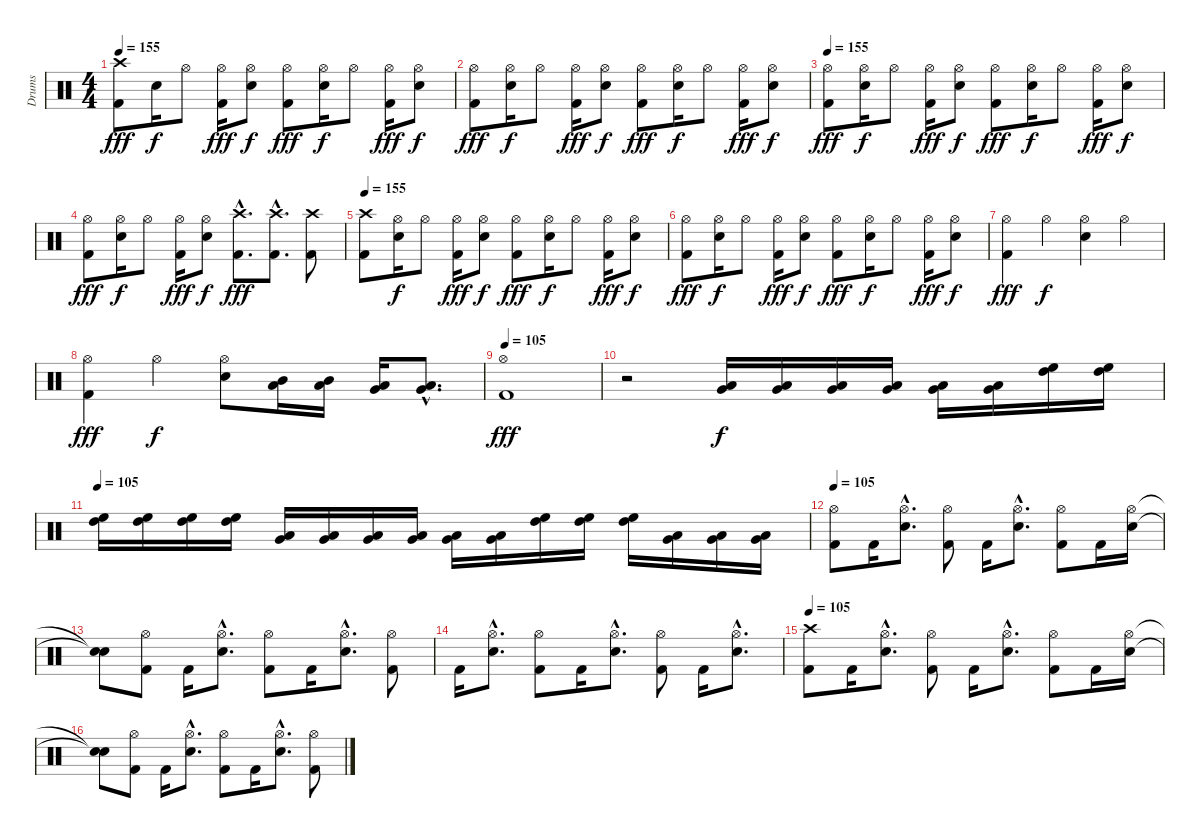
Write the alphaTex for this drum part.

\track ("Drums" "Drums") {instrument percussion}
\staff {score}
\articulation defaults
\ts (4 4)
\tempo 155
\clef neutral
\ks c
("Kick (hit) 2" "Crash high (hit)").8{dy fff} "Electric Snare (hit)".16{dy f} "Hi-Hat (open)".8 ("Kick (hit) 2" "Hi-Hat (open)").16{dy fff} ("Electric Snare (hit)" "Hi-Hat (open)").8{dy f} ("Kick (hit) 2" "Hi-Hat (open)").8{dy fff} ("Electric Snare (hit)" "Hi-Hat (open)").16{dy f} "Hi-Hat (open)".8 ("Kick (hit) 2" "Hi-Hat (open)").16{dy fff} ("Electric Snare (hit)" "Hi-Hat (open)").8{dy f} |
("Kick (hit) 2" "Hi-Hat (open)").8{dy fff} ("Electric Snare (hit)" "Hi-Hat (open)").16{dy f} "Hi-Hat (open)".8 ("Kick (hit) 2" "Hi-Hat (open)").16{dy fff} ("Electric Snare (hit)" "Hi-Hat (open)").8{dy f} ("Kick (hit) 2" "Hi-Hat (open)").8{dy fff} ("Electric Snare (hit)" "Hi-Hat (open)").16{dy f} "Hi-Hat (open)".8 ("Kick (hit) 2" "Hi-Hat (open)").16{dy fff} ("Electric Snare (hit)" "Hi-Hat (open)").8{dy f} |
\tempo 155
("Kick (hit) 2" "Hi-Hat (open)").8{dy fff} ("Electric Snare (hit)" "Hi-Hat (open)").16{dy f} "Hi-Hat (open)".8 ("Kick (hit) 2" "Hi-Hat (open)").16{dy fff} ("Electric Snare (hit)" "Hi-Hat (open)").8{dy f} ("Kick (hit) 2" "Hi-Hat (open)").8{dy fff} ("Electric Snare (hit)" "Hi-Hat (open)").16{dy f} "Hi-Hat (open)".8 ("Kick (hit) 2" "Hi-Hat (open)").16{dy fff} ("Electric Snare (hit)" "Hi-Hat (open)").8{dy f} |
("Kick (hit) 2" "Hi-Hat (open)").8{dy fff} ("Electric Snare (hit)" "Hi-Hat (open)").16{dy f} "Hi-Hat (open)".8 ("Kick (hit) 2" "Hi-Hat (open)").16{dy fff} ("Electric Snare (hit)" "Hi-Hat (open)").8{dy f} ("Kick (hit) 2"{hac} "Crash high (hit)"{hac}).8{d dy fff} ("Kick (hit) 2"{hac} "Crash high (hit)"{hac}).8{d} ("Kick (hit) 2" "Crash high (hit)").8 |
\tempo 155
("Kick (hit) 2" "Crash high (hit)").8 ("Electric Snare (hit)" "Hi-Hat (open)").16{dy f} "Hi-Hat (open)".8 ("Kick (hit) 2" "Hi-Hat (open)").16{dy fff} ("Electric Snare (hit)" "Hi-Hat (open)").8{dy f} ("Kick (hit) 2" "Hi-Hat (open)").8{dy fff} ("Electric Snare (hit)" "Hi-Hat (open)").16{dy f} "Hi-Hat (open)".8 ("Kick (hit) 2" "Hi-Hat (open)").16{dy fff} ("Electric Snare (hit)" "Hi-Hat (open)").8{dy f} |
("Kick (hit) 2" "Hi-Hat (open)").8{dy fff} ("Electric Snare (hit)" "Hi-Hat (open)").16{dy f} "Hi-Hat (open)".8 ("Kick (hit) 2" "Hi-Hat (open)").16{dy fff} ("Electric Snare (hit)" "Hi-Hat (open)").8{dy f} ("Kick (hit) 2" "Hi-Hat (open)").8{dy fff} ("Electric Snare (hit)" "Hi-Hat (open)").16{dy f} "Hi-Hat (open)".8 ("Kick (hit) 2" "Hi-Hat (open)").16{dy fff} ("Electric Snare (hit)" "Hi-Hat (open)").8{dy f} |
("Kick (hit) 2" "Hi-Hat (open)").4{dy fff} "Hi-Hat (open)".4{dy f} ("Electric Snare (hit)" "Hi-Hat (open)").4 "Hi-Hat (open)".4 |
("Kick (hit) 2" "Hi-Hat (open)").4{dy fff} "Hi-Hat (open)".4{dy f} ("Electric Snare (hit)" "Hi-Hat (open)").8 ("Low Tom (hit)" "Mid Tom (hit)").16 ("Mid Tom (hit)" "Low Tom (hit)").16 ("Low Tom (hit)" "Very Low Tom (hit)").16 ("Very Low Tom (hit)"{hac} "Low Floor Tom (hit)"{hac}).8{d} |
\tempo 105
("Kick (hit) 2" "Hi-Hat (open)").1{dy fff} |
r.2 ("Very Low Tom (hit)" "Low Floor Tom (hit)").16{dy f} ("Very Low Tom (hit)" "Low Floor Tom (hit)").16 ("Very Low Tom (hit)" "Low Floor Tom (hit)").16 ("Very Low Tom (hit)" "Low Floor Tom (hit)").16 ("Very Low Tom (hit)" "Low Floor Tom (hit)").16 ("Very Low Tom (hit)" "Low Floor Tom (hit)").16 ("High Floor Tom (hit)" "High Tom (hit)").16 ("High Floor Tom (hit)" "High Tom (hit)").16 |
\tempo 105
("High Floor Tom (hit)" "High Tom (hit)").16 ("High Floor Tom (hit)" "High Tom (hit)").16 ("High Floor Tom (hit)" "High Tom (hit)").16 ("High Floor Tom (hit)" "High Tom (hit)").16 ("Very Low Tom (hit)" "Low Floor Tom (hit)").16 ("Very Low Tom (hit)" "Low Floor Tom (hit)").16 ("Very Low Tom (hit)" "Low Floor Tom (hit)").16 ("Low Tom (hit)" "Very Low Tom (hit)").16 ("Low Tom (hit)" "Very Low Tom (hit)").16 ("Low Tom (hit)" "Very Low Tom (hit)").16 ("High Floor Tom (hit)" "High Tom (hit)").16 ("High Floor Tom (hit)" "High Tom (hit)").16 ("High Floor Tom (hit)" "High Tom (hit)").16 ("Very Low Tom (hit)" "Low Floor Tom (hit)").16 ("Very Low Tom (hit)" "Low Floor Tom (hit)").16 ("Very Low Tom (hit)" "Low Floor Tom (hit)").16 |
\tempo 105
("Kick (hit) 2" "Hi-Hat (open)").8 "Kick (hit) 2".16 ("Electric Snare (hit)"{hac} "Hi-Hat (open)"{hac}).8{d} ("Kick (hit) 2" "Hi-Hat (open)").8 "Kick (hit) 2".16 ("Electric Snare (hit)"{hac} "Hi-Hat (open)"{hac}).8{d} ("Kick (hit) 2" "Hi-Hat (open)").8 "Kick (hit) 2".16 ("Electric Snare (hit)" "Hi-Hat (open)").16 |
("Snare (hit)"{t} "Snare (hit)"{t}).8 ("Kick (hit) 2" "Hi-Hat (open)").8 "Kick (hit) 2".16 ("Electric Snare (hit)"{hac} "Hi-Hat (open)"{hac}).8{d} ("Kick (hit) 2" "Hi-Hat (open)").8 "Kick (hit) 2".16 ("Electric Snare (hit)"{hac} "Hi-Hat (open)"{hac}).8{d} ("Kick (hit) 2" "Hi-Hat (open)").8 |
"Kick (hit) 2".16 ("Electric Snare (hit)"{hac} "Hi-Hat (open)"{hac}).8{d} ("Kick (hit) 2" "Hi-Hat (open)").8 "Kick (hit) 2".16 ("Electric Snare (hit)"{hac} "Hi-Hat (open)"{hac}).8{d} ("Kick (hit) 2" "Hi-Hat (open)").8 "Kick (hit) 2".16 ("Electric Snare (hit)"{hac} "Hi-Hat (open)"{hac}).8{d} |
\tempo 105
("Kick (hit) 2" "Crash high (hit)").8 "Kick (hit) 2".16 ("Electric Snare (hit)"{hac} "Hi-Hat (open)"{hac}).8{d} ("Kick (hit) 2" "Hi-Hat (open)").8 "Kick (hit) 2".16 ("Electric Snare (hit)"{hac} "Hi-Hat (open)"{hac}).8{d} ("Kick (hit) 2" "Hi-Hat (open)").8 "Kick (hit) 2".16 ("Electric Snare (hit)" "Hi-Hat (open)").16 |
("Snare (hit)"{t} "Snare (hit)"{t}).8 ("Kick (hit) 2" "Hi-Hat (open)").8 "Kick (hit) 2".16 ("Electric Snare (hit)"{hac} "Hi-Hat (open)"{hac}).8{d} ("Kick (hit) 2" "Hi-Hat (open)").8 "Kick (hit) 2".16 ("Electric Snare (hit)"{hac} "Hi-Hat (open)"{hac}).8{d} ("Kick (hit) 2" "Hi-Hat (open)").8
